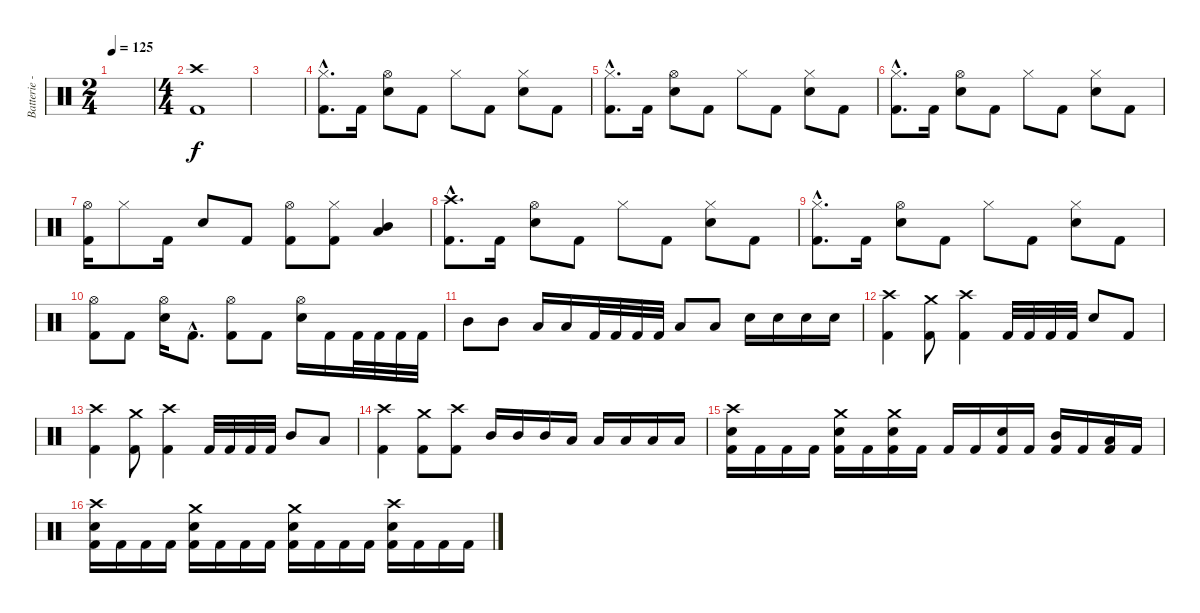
\track ("Batterie - Anton" "Batterie -") {instrument percussion}
\staff {score}
\articulation defaults
\ts (2 4)
\tempo 125
\clef neutral
\ks c
|
\ts (4 4)
("Crash high (hit)" "Kick (hit) 2").1 |
|
("Hi-Hat (closed)"{hac} "Kick (hit) 2"{hac}).8{d} "Kick (hit) 2".16 ("Hi-Hat (open)" "Electric Snare (hit)").8 "Kick (hit) 2".8 "Hi-Hat (closed)".8 "Kick (hit) 2".8 ("Hi-Hat (closed)" "Electric Snare (hit)").8 "Kick (hit) 2".8 |
("Hi-Hat (closed)"{hac} "Kick (hit) 2"{hac}).8{d} "Kick (hit) 2".16 ("Hi-Hat (open)" "Electric Snare (hit)").8 "Kick (hit) 2".8 "Hi-Hat (closed)".8 "Kick (hit) 2".8 ("Hi-Hat (closed)" "Electric Snare (hit)").8 "Kick (hit) 2".8 |
("Hi-Hat (closed)"{hac} "Kick (hit) 2"{hac}).8{d} "Kick (hit) 2".16 ("Hi-Hat (open)" "Electric Snare (hit)").8 "Kick (hit) 2".8 "Hi-Hat (closed)".8 "Kick (hit) 2".8 ("Hi-Hat (closed)" "Electric Snare (hit)").8 "Kick (hit) 2".8 |
("Hi-Hat (open)" "Kick (hit) 2").16 "Hi-Hat (closed)".8 "Kick (hit) 2".16 "Electric Snare (hit)".8 "Kick (hit) 2".8 ("Hi-Hat (open)" "Kick (hit) 2").8 ("Hi-Hat (closed)" "Kick (hit) 2").8 ("Low Tom (hit)" "Mid Tom (hit)").4 |
("Crash high (hit)"{hac} "Kick (hit) 2"{hac}).8{d} "Kick (hit) 2".16 ("Hi-Hat (open)" "Electric Snare (hit)").8 "Kick (hit) 2".8 "Hi-Hat (closed)".8 "Kick (hit) 2".8 ("Hi-Hat (closed)" "Electric Snare (hit)").8 "Kick (hit) 2".8 |
("Hi-Hat (closed)"{hac} "Kick (hit) 2"{hac}).8{d} "Kick (hit) 2".16 ("Hi-Hat (open)" "Electric Snare (hit)").8 "Kick (hit) 2".8 "Hi-Hat (closed)".8 "Kick (hit) 2".8 ("Hi-Hat (closed)" "Electric Snare (hit)").8 "Kick (hit) 2".8 |
("Hi-Hat (open)" "Kick (hit) 2").8 "Kick (hit) 2".8 ("Hi-Hat (open)" "Electric Snare (hit)").16 "Kick (hit) 2"{hac}.8{d} ("Hi-Hat (open)" "Kick (hit) 2").8 "Kick (hit) 2".8 ("Hi-Hat (open)" "Electric Snare (hit)").16 "Kick (hit) 2".16 "Kick (hit) 2".32 "Kick (hit) 2".32 "Kick (hit) 2".32 "Kick (hit) 2".32 |
"Mid Tom (hit)".8 "Mid Tom (hit)".8 "Low Floor Tom (hit)".16 "Low Floor Tom (hit)".16 "Kick (hit) 2".32 "Kick (hit) 2".32 "Kick (hit) 2".32 "Kick (hit) 2".32 "Low Tom (hit)".8 "Low Tom (hit)".8 "Electric Snare (hit)".16 "Electric Snare (hit)".16 "Electric Snare (hit)".16 "Electric Snare (hit)".16 |
("Crash high (hit)" "Kick (hit) 2").4 ("Crash medium (hit)" "Kick (hit) 2").8 ("Crash high (hit)" "Kick (hit) 2").4 "Kick (hit) 2".32 "Kick (hit) 2".32 "Kick (hit) 2".32 "Kick (hit) 2".32 "Electric Snare (hit)".8 "Kick (hit) 2".8 |
("Crash high (hit)" "Kick (hit) 2").4 ("Crash medium (hit)" "Kick (hit) 2").8 ("Crash high (hit)" "Kick (hit) 2").4 "Kick (hit) 2".32 "Kick (hit) 2".32 "Kick (hit) 2".32 "Kick (hit) 2".32 "Mid Tom (hit)".8 "Low Tom (hit)".8 |
("Crash high (hit)" "Kick (hit) 2").4 ("Crash medium (hit)" "Kick (hit) 2").8 ("Crash high (hit)" "Kick (hit) 2").8 "Mid Tom (hit)".16 "Mid Tom (hit)".16 "Mid Tom (hit)".16 "Low Tom (hit)".16 "Low Tom (hit)".16 "Low Tom (hit)".16 "Low Floor Tom (hit)".16 "Low Floor Tom (hit)".16 |
("Crash high (hit)" "Electric Snare (hit)" "Kick (hit) 2").16 "Kick (hit) 2".16 "Kick (hit) 2".16 "Kick (hit) 2".16 ("Crash medium (hit)" "Electric Snare (hit)" "Kick (hit) 2").16 "Kick (hit) 2".16 ("Crash medium (hit)" "Electric Snare (hit)" "Kick (hit) 2").16 "Kick (hit) 2".16 "Kick (hit) 2".16 "Kick (hit) 2".16 ("Electric Snare (hit)" "Kick (hit) 2").16 "Kick (hit) 2".16 ("Mid Tom (hit)" "Kick (hit) 2").16 "Kick (hit) 2".16 ("Low Tom (hit)" "Kick (hit) 2").16 "Kick (hit) 2".16 |
("Crash high (hit)" "Electric Snare (hit)" "Kick (hit) 2").16 "Kick (hit) 2".16 "Kick (hit) 2".16 "Kick (hit) 2".16 ("Crash medium (hit)" "Electric Snare (hit)" "Kick (hit) 2").16 "Kick (hit) 2".16 "Kick (hit) 2".16 "Kick (hit) 2".16 ("Crash medium (hit)" "Electric Snare (hit)" "Kick (hit) 2").16 "Kick (hit) 2".16 "Kick (hit) 2".16 "Kick (hit) 2".16 ("Crash high (hit)" "Electric Snare (hit)" "Kick (hit) 2").16 "Kick (hit) 2".16 "Kick (hit) 2".16 "Kick (hit) 2".16
